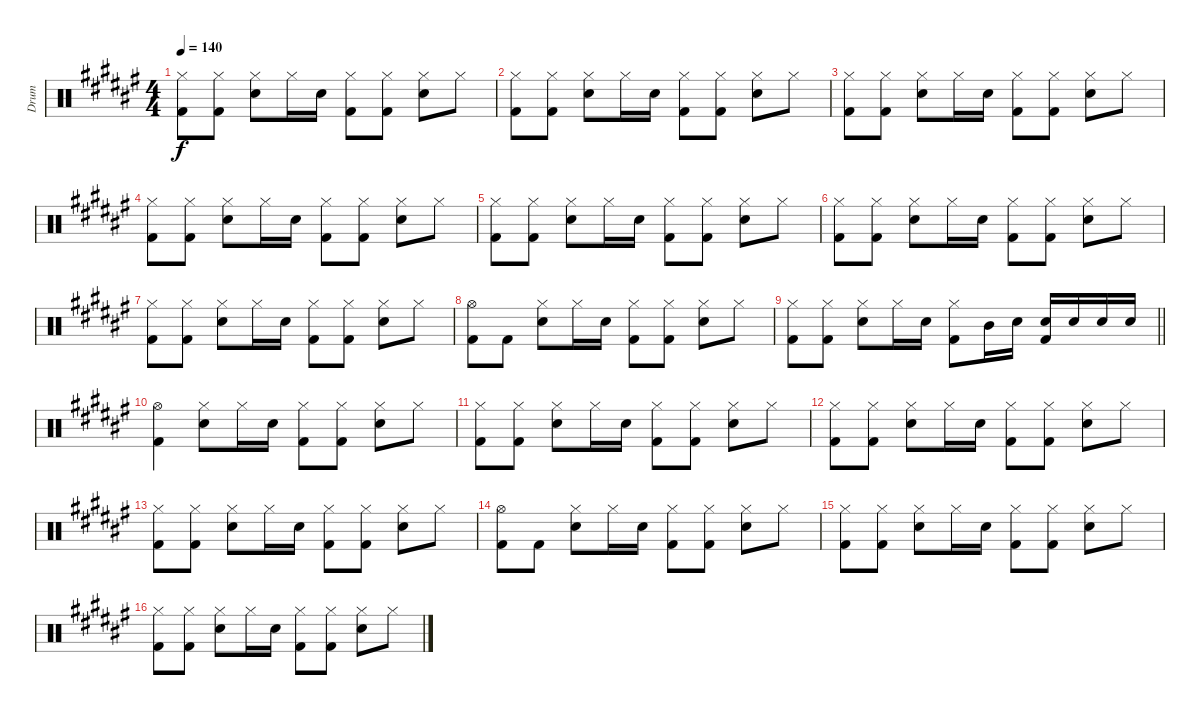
\track ("Drum" "Drum") {instrument percussion}
\staff {score}
\articulation defaults
\ts (4 4)
\tempo 140
\clef neutral
\ks d#minor
("Hi-Hat (closed)" "Kick (hit) 2").8{dy f} ("Hi-Hat (closed)" "Kick (hit) 2").8 ("Hi-Hat (closed)" "Snare (hit) 2").8 "Hi-Hat (closed)".16 "Snare (hit) 2".16 ("Hi-Hat (closed)" "Kick (hit) 2").8 ("Hi-Hat (closed)" "Kick (hit) 2").8 ("Hi-Hat (closed)" "Snare (hit) 2").8 "Hi-Hat (closed)".8 |
("Hi-Hat (closed)" "Kick (hit) 2").8 ("Hi-Hat (closed)" "Kick (hit) 2").8 ("Hi-Hat (closed)" "Snare (hit) 2").8 "Hi-Hat (closed)".16 "Snare (hit) 2".16 ("Hi-Hat (closed)" "Kick (hit) 2").8 ("Hi-Hat (closed)" "Kick (hit) 2").8 ("Hi-Hat (closed)" "Snare (hit) 2").8 "Hi-Hat (closed)".8 |
("Hi-Hat (closed)" "Kick (hit) 2").8 ("Hi-Hat (closed)" "Kick (hit) 2").8 ("Hi-Hat (closed)" "Snare (hit) 2").8 "Hi-Hat (closed)".16 "Snare (hit) 2".16 ("Hi-Hat (closed)" "Kick (hit) 2").8 ("Hi-Hat (closed)" "Kick (hit) 2").8 ("Hi-Hat (closed)" "Snare (hit) 2").8 "Hi-Hat (closed)".8 |
("Hi-Hat (closed)" "Kick (hit) 2").8 ("Hi-Hat (closed)" "Kick (hit) 2").8 ("Hi-Hat (closed)" "Snare (hit) 2").8 "Hi-Hat (closed)".16 "Snare (hit) 2".16 ("Hi-Hat (closed)" "Kick (hit) 2").8 ("Hi-Hat (closed)" "Kick (hit) 2").8 ("Hi-Hat (closed)" "Snare (hit) 2").8 "Hi-Hat (closed)".8 |
("Hi-Hat (closed)" "Kick (hit) 2").8 ("Hi-Hat (closed)" "Kick (hit) 2").8 ("Hi-Hat (closed)" "Snare (hit) 2").8 "Hi-Hat (closed)".16 "Snare (hit) 2".16 ("Hi-Hat (closed)" "Kick (hit) 2").8 ("Hi-Hat (closed)" "Kick (hit) 2").8 ("Hi-Hat (closed)" "Snare (hit) 2").8 "Hi-Hat (closed)".8 |
("Hi-Hat (closed)" "Kick (hit) 2").8 ("Hi-Hat (closed)" "Kick (hit) 2").8 ("Hi-Hat (closed)" "Snare (hit) 2").8 "Hi-Hat (closed)".16 "Snare (hit) 2".16 ("Hi-Hat (closed)" "Kick (hit) 2").8 ("Hi-Hat (closed)" "Kick (hit) 2").8 ("Hi-Hat (closed)" "Snare (hit) 2").8 "Hi-Hat (closed)".8 |
("Hi-Hat (closed)" "Kick (hit) 2").8 ("Hi-Hat (closed)" "Kick (hit) 2").8 ("Hi-Hat (closed)" "Snare (hit) 2").8 "Hi-Hat (closed)".16 "Snare (hit) 2".16 ("Hi-Hat (closed)" "Kick (hit) 2").8 ("Hi-Hat (closed)" "Kick (hit) 2").8 ("Hi-Hat (closed)" "Snare (hit) 2").8 "Hi-Hat (closed)".8 |
("Hi-Hat (open)" "Kick (hit) 2").8 "Kick (hit) 2".8 ("Hi-Hat (closed)" "Snare (hit) 2").8 "Hi-Hat (closed)".16 "Snare (hit) 2".16 ("Hi-Hat (closed)" "Kick (hit) 2").8 ("Hi-Hat (closed)" "Kick (hit) 2").8 ("Hi-Hat (closed)" "Snare (hit) 2").8 "Hi-Hat (closed)".8 |
\barLineRight lightlight
("Hi-Hat (closed)" "Kick (hit) 2").8 ("Hi-Hat (closed)" "Kick (hit) 2").8 ("Hi-Hat (closed)" "Snare (hit) 2").8 "Hi-Hat (closed)".16 "Snare (hit) 2".16 ("Hi-Hat (closed)" "Kick (hit) 2").8 "Mid Tom (hit)".16 "Snare (hit) 2".16 ("Snare (hit) 2" "Kick (hit) 2").16 "Snare (hit) 2".16 "Snare (hit) 2".16 "Snare (hit) 2".16 |
("Hi-Hat (open)" "Kick (hit) 2").4 ("Hi-Hat (closed)" "Snare (hit) 2").8 "Hi-Hat (closed)".16 "Snare (hit) 2".16 ("Hi-Hat (closed)" "Kick (hit) 2").8 ("Hi-Hat (closed)" "Kick (hit) 2").8 ("Hi-Hat (closed)" "Snare (hit) 2").8 "Hi-Hat (closed)".8 |
("Hi-Hat (closed)" "Kick (hit) 2").8 ("Hi-Hat (closed)" "Kick (hit) 2").8 ("Hi-Hat (closed)" "Snare (hit) 2").8 "Hi-Hat (closed)".16 "Snare (hit) 2".16 ("Hi-Hat (closed)" "Kick (hit) 2").8 ("Hi-Hat (closed)" "Kick (hit) 2").8 ("Hi-Hat (closed)" "Snare (hit) 2").8 "Hi-Hat (closed)".8 |
("Hi-Hat (closed)" "Kick (hit) 2").8 ("Hi-Hat (closed)" "Kick (hit) 2").8 ("Hi-Hat (closed)" "Snare (hit) 2").8 "Hi-Hat (closed)".16 "Snare (hit) 2".16 ("Hi-Hat (closed)" "Kick (hit) 2").8 ("Hi-Hat (closed)" "Kick (hit) 2").8 ("Hi-Hat (closed)" "Snare (hit) 2").8 "Hi-Hat (closed)".8 |
("Hi-Hat (closed)" "Kick (hit) 2").8 ("Hi-Hat (closed)" "Kick (hit) 2").8 ("Hi-Hat (closed)" "Snare (hit) 2").8 "Hi-Hat (closed)".16 "Snare (hit) 2".16 ("Hi-Hat (closed)" "Kick (hit) 2").8 ("Hi-Hat (closed)" "Kick (hit) 2").8 ("Hi-Hat (closed)" "Snare (hit) 2").8 "Hi-Hat (closed)".8 |
("Hi-Hat (open)" "Kick (hit) 2").8 "Kick (hit) 2".8 ("Hi-Hat (closed)" "Snare (hit) 2").8 "Hi-Hat (closed)".16 "Snare (hit) 2".16 ("Hi-Hat (closed)" "Kick (hit) 2").8 ("Hi-Hat (closed)" "Kick (hit) 2").8 ("Hi-Hat (closed)" "Snare (hit) 2").8 "Hi-Hat (closed)".8 |
("Hi-Hat (closed)" "Kick (hit) 2").8 ("Hi-Hat (closed)" "Kick (hit) 2").8 ("Hi-Hat (closed)" "Snare (hit) 2").8 "Hi-Hat (closed)".16 "Snare (hit) 2".16 ("Hi-Hat (closed)" "Kick (hit) 2").8 ("Hi-Hat (closed)" "Kick (hit) 2").8 ("Hi-Hat (closed)" "Snare (hit) 2").8 "Hi-Hat (closed)".8 |
("Hi-Hat (closed)" "Kick (hit) 2").8 ("Hi-Hat (closed)" "Kick (hit) 2").8 ("Hi-Hat (closed)" "Snare (hit) 2").8 "Hi-Hat (closed)".16 "Snare (hit) 2".16 ("Hi-Hat (closed)" "Kick (hit) 2").8 ("Hi-Hat (closed)" "Kick (hit) 2").8 ("Hi-Hat (closed)" "Snare (hit) 2").8 "Hi-Hat (closed)".8
